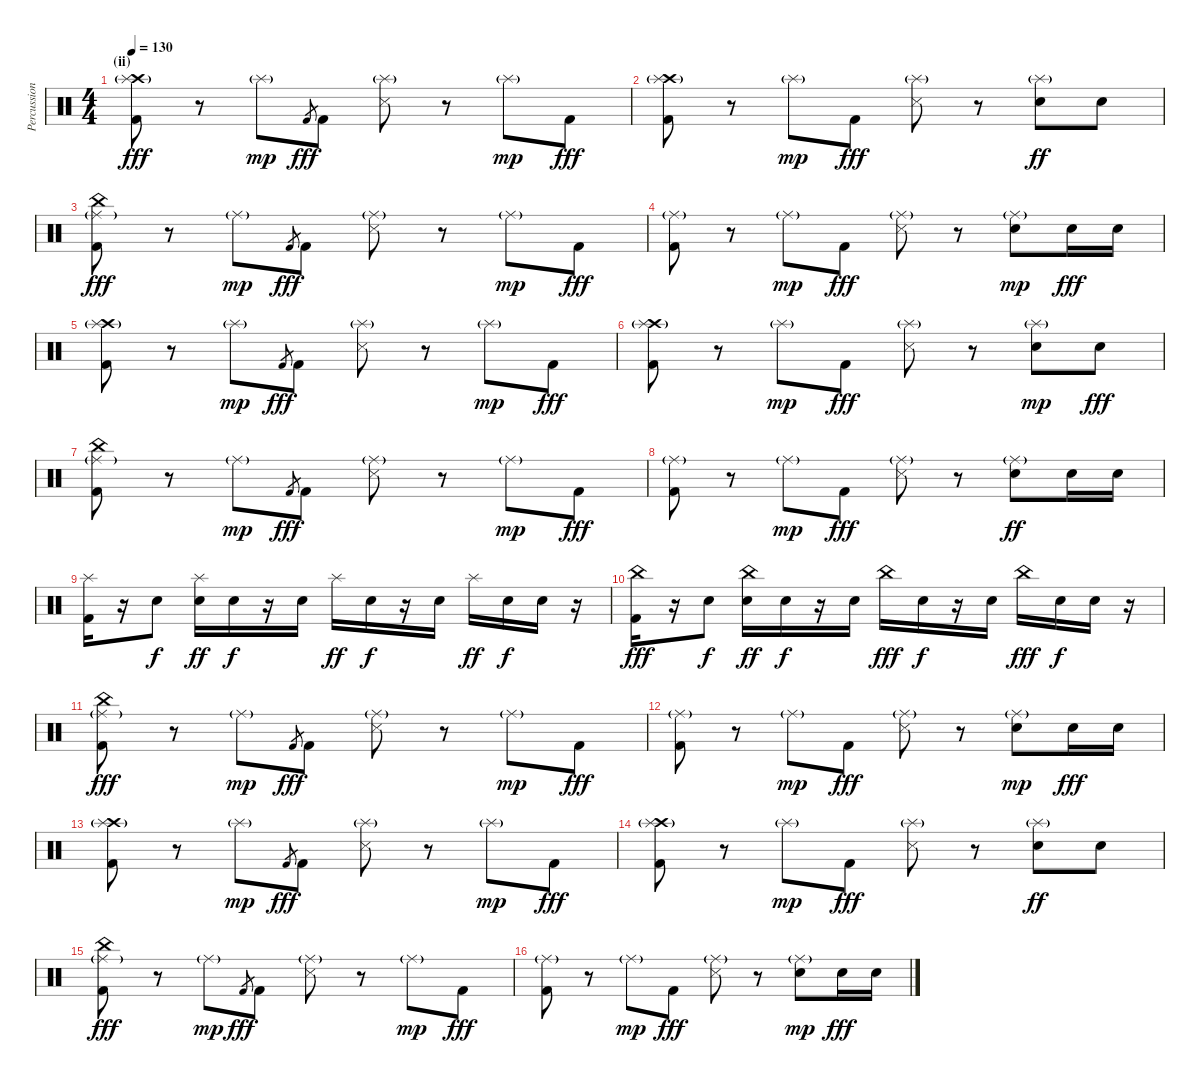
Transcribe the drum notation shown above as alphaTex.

\track ("Percussion" "Percussion") {instrument percussion}
\staff {score}
\articulation defaults
\ts (4 4)
\section ("" "(ii)")
\tempo 130
\clef neutral
\ks c
("Crash high (hit)" "Splash (hit)"{g} "Kick (hit) 2").8{dy fff} r.8 "Splash (hit)"{g}.8{dy mp} "Kick (hit) 2".8{gr dy fff} "Kick (hit) 2".8 ("Splash (hit)"{g} "Snare (side stick) 3").8 r.8 "Splash (hit)"{g}.8{dy mp} "Kick (hit) 2".8{dy fff} |
("Crash high (hit)" "Splash (hit)"{g} "Kick (hit) 2").8 r.8 "Splash (hit)"{g}.8{dy mp} "Kick (hit) 2".8{dy fff} ("Splash (hit)"{g} "Snare (side stick) 3").8 r.8 ("Splash (hit)"{g} "Electric Snare (hit)").8{dy ff} "Electric Snare (hit)".8 |
("China (hit)" "Ride (middle)"{g} "Kick (hit) 2").8{dy fff} r.8 "Ride (middle)"{g}.8{dy mp} "Kick (hit) 2".8{gr dy fff} "Kick (hit) 2".8 ("Ride (middle)"{g} "Snare (side stick) 3").8 r.8 "Ride (middle)"{g}.8{dy mp} "Kick (hit) 2".8{dy fff} |
("Ride (middle)"{g} "Kick (hit) 2").8 r.8 "Ride (middle)"{g}.8{dy mp} "Kick (hit) 2".8{dy fff} ("Ride (middle)"{g} "Snare (side stick) 3").8 r.8 ("Ride (middle)"{g} "Electric Snare (hit)").8{dy mp} "Electric Snare (hit)".16{dy fff} "Electric Snare (hit)".16 |
("Crash high (hit)" "Splash (hit)"{g} "Kick (hit) 2").8 r.8 "Splash (hit)"{g}.8{dy mp} "Kick (hit) 2".8{gr dy fff} "Kick (hit) 2".8 ("Splash (hit)"{g} "Snare (side stick) 3").8 r.8 "Splash (hit)"{g}.8{dy mp} "Kick (hit) 2".8{dy fff} |
("Crash high (hit)" "Splash (hit)"{g} "Kick (hit) 2").8 r.8 "Splash (hit)"{g}.8{dy mp} "Kick (hit) 2".8{dy fff} ("Splash (hit)"{g} "Snare (side stick) 3").8 r.8 ("Splash (hit)"{g} "Electric Snare (hit)").8{dy mp} "Electric Snare (hit)".8{dy fff} |
("China (hit)" "Ride (middle)"{g} "Kick (hit) 2").8 r.8 "Ride (middle)"{g}.8{dy mp} "Kick (hit) 2".8{gr dy fff} "Kick (hit) 2".8 ("Ride (middle)"{g} "Snare (side stick) 3").8 r.8 "Ride (middle)"{g}.8{dy mp} "Kick (hit) 2".8{dy fff} |
("Ride (middle)"{g} "Kick (hit) 2").8 r.8 "Ride (middle)"{g}.8{dy mp} "Kick (hit) 2".8{dy fff} ("Ride (middle)"{g} "Snare (side stick) 3").8 r.8 ("Ride (middle)"{g} "Electric Snare (hit)").8{dy ff} "Electric Snare (hit)".16 "Electric Snare (hit)".16 |
("Splash (hit)" "Kick (hit) 2").16 r.16 "Electric Snare (hit)".8{dy f} ("Splash (hit)" "Electric Snare (hit)").16{dy ff} "Electric Snare (hit)".16{dy f} r.16 "Electric Snare (hit)".16 "Splash (hit)".16{dy ff} "Electric Snare (hit)".16{dy f} r.16 "Electric Snare (hit)".16 "Splash (hit)".16{dy ff} "Electric Snare (hit)".16{dy f} "Electric Snare (hit)".16 r.16 |
("China (hit)" "Kick (hit) 2").16{dy fff} r.16 "Electric Snare (hit)".8{dy f} ("China (hit)" "Electric Snare (hit)").16{dy ff} "Electric Snare (hit)".16{dy f} r.16 "Electric Snare (hit)".16 "China (hit)".16{dy fff} "Electric Snare (hit)".16{dy f} r.16 "Electric Snare (hit)".16 "China (hit)".16{dy fff} "Electric Snare (hit)".16{dy f} "Electric Snare (hit)".16 r.16 |
("China (hit)" "Ride (middle)"{g} "Kick (hit) 2").8{dy fff} r.8 "Ride (middle)"{g}.8{dy mp} "Kick (hit) 2".8{gr dy fff} "Kick (hit) 2".8 ("Ride (middle)"{g} "Snare (side stick) 3").8 r.8 "Ride (middle)"{g}.8{dy mp} "Kick (hit) 2".8{dy fff} |
("Ride (middle)"{g} "Kick (hit) 2").8 r.8 "Ride (middle)"{g}.8{dy mp} "Kick (hit) 2".8{dy fff} ("Ride (middle)"{g} "Snare (side stick) 3").8 r.8 ("Ride (middle)"{g} "Electric Snare (hit)").8{dy mp} "Electric Snare (hit)".16{dy fff} "Electric Snare (hit)".16 |
("Crash high (hit)" "Splash (hit)"{g} "Kick (hit) 2").8 r.8 "Splash (hit)"{g}.8{dy mp} "Kick (hit) 2".8{gr dy fff} "Kick (hit) 2".8 ("Splash (hit)"{g} "Snare (side stick) 3").8 r.8 "Splash (hit)"{g}.8{dy mp} "Kick (hit) 2".8{dy fff} |
("Crash high (hit)" "Splash (hit)"{g} "Kick (hit) 2").8 r.8 "Splash (hit)"{g}.8{dy mp} "Kick (hit) 2".8{dy fff} ("Splash (hit)"{g} "Snare (side stick) 3").8 r.8 ("Splash (hit)"{g} "Electric Snare (hit)").8{dy ff} "Electric Snare (hit)".8 |
("China (hit)" "Ride (middle)"{g} "Kick (hit) 2").8{dy fff} r.8 "Ride (middle)"{g}.8{dy mp} "Kick (hit) 2".8{gr dy fff} "Kick (hit) 2".8 ("Ride (middle)"{g} "Snare (side stick) 3").8 r.8 "Ride (middle)"{g}.8{dy mp} "Kick (hit) 2".8{dy fff} |
("Ride (middle)"{g} "Kick (hit) 2").8 r.8 "Ride (middle)"{g}.8{dy mp} "Kick (hit) 2".8{dy fff} ("Ride (middle)"{g} "Snare (side stick) 3").8 r.8 ("Ride (middle)"{g} "Electric Snare (hit)").8{dy mp} "Electric Snare (hit)".16{dy fff} "Electric Snare (hit)".16
